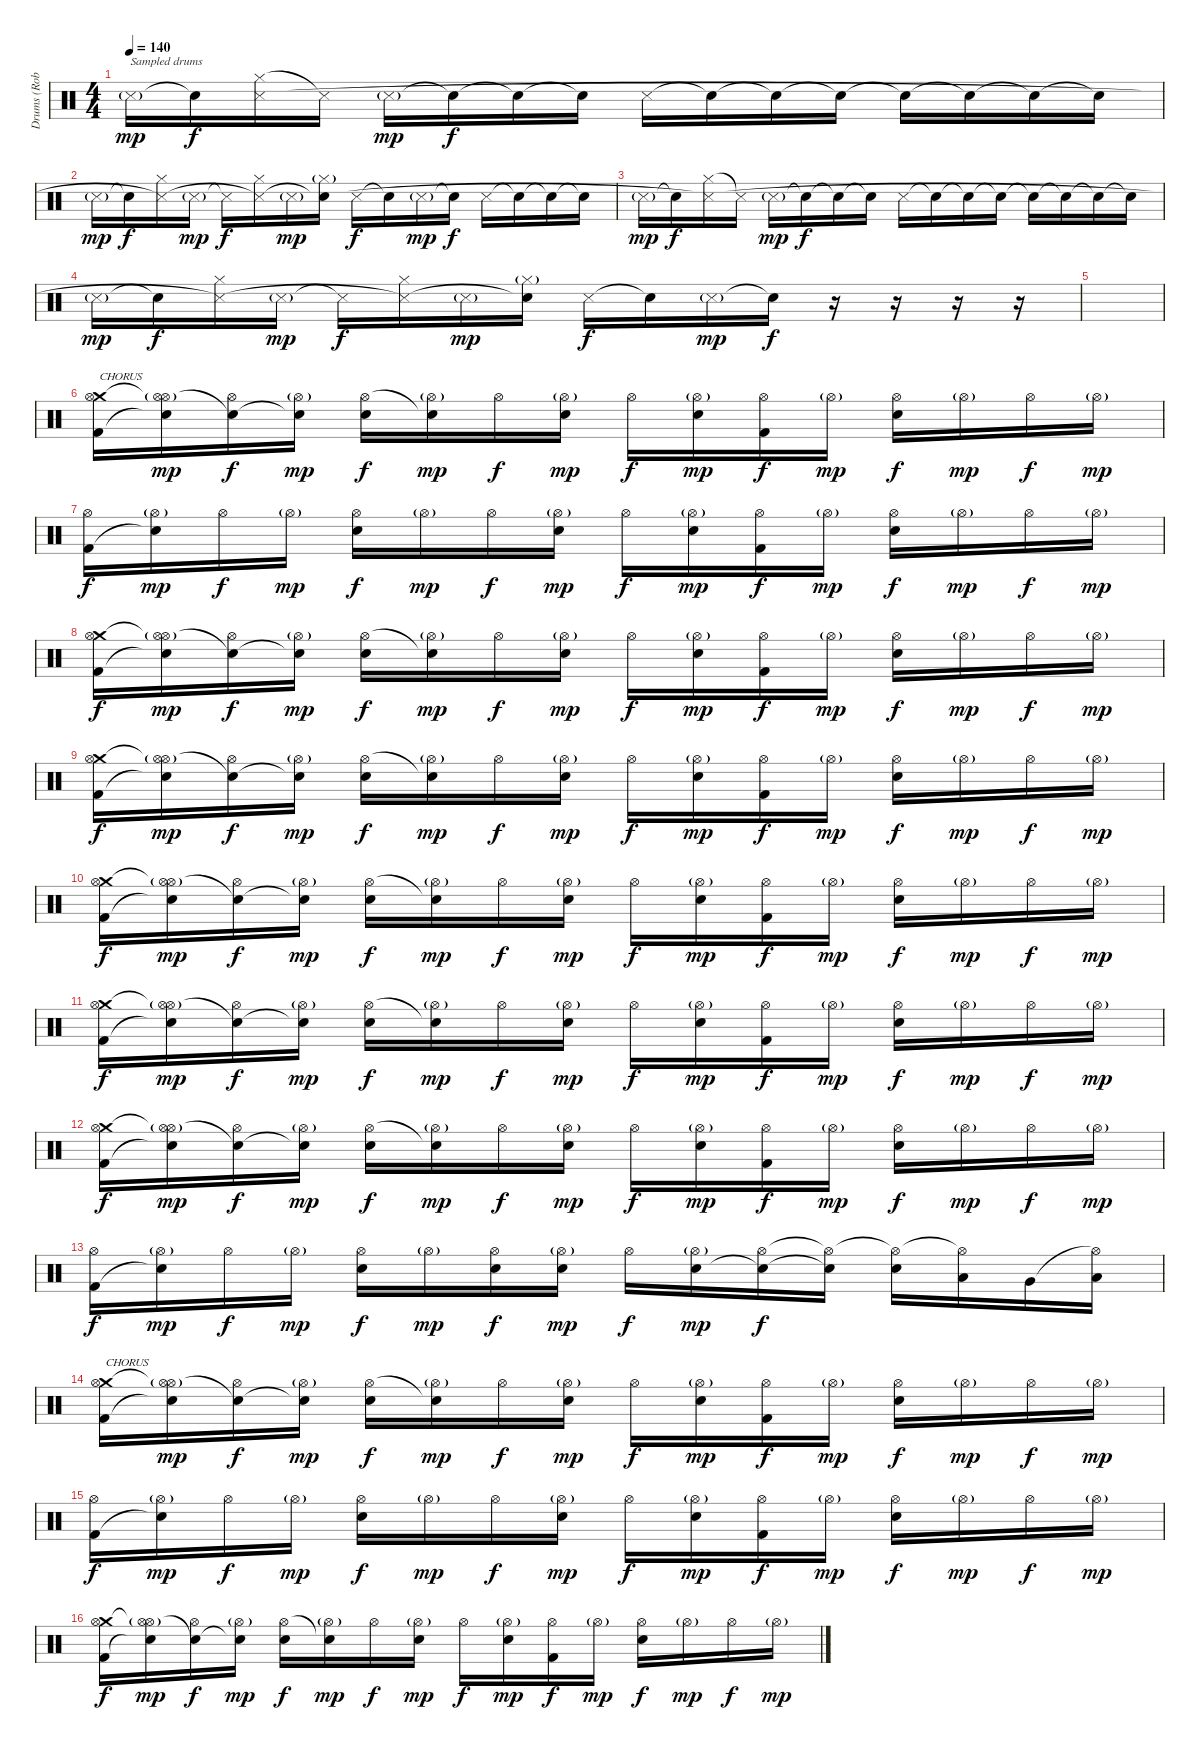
\track ("Drums (Rob Bourdon)" "Drums (Rob") {instrument percussion}
\staff {score}
\articulation defaults
\ts (4 4)
\tempo 140
\clef neutral
\ks c "Metronome (hit)"{g}.16{txt "Sampled drums" dy mp} "Snare (hit)"{t}.16{dy f}
("Hi-Hat (closed)" "Metronome (hit)"{t}).16 "Metronome (hit)"{t}.16 "Metronome (hit)"{g}.16{dy mp} "Snare (hit)"{t}.16{dy f} "Snare (hit)"{t}.16 "Snare (hit)"{t}.16 "Snare (side stick) 3".16 "Snare (hit)"{t}.16 "Snare (hit)"{t}.16 "Snare (hit)"{t}.16 "Snare (hit)"{t}.16 "Snare (hit)"{t}.16 "Snare (hit)"{t}.16 "Snare (hit)"{t}.16 |
"Metronome (hit)"{g}.16{dy mp} "Snare (hit)"{t}.16{dy f} ("Hi-Hat (closed)" "Metronome (hit)"{t}).16 "Metronome (hit)"{g}.16{dy mp} "Metronome (hit)"{t}.16{dy f} ("Hi-Hat (closed)" "Metronome (hit)"{t}).16 "Metronome (hit)"{g}.16{dy mp} ("Hi-Hat (closed)"{g} "Snare (hit)"{t}).16 "Snare (side stick) 3".16{dy f} "Snare (hit)"{t}.16 "Metronome (hit)"{g}.16{dy mp} "Snare (hit)"{t}.16{dy f} "Snare (side stick) 3".16 "Snare (hit)"{t}.16 "Snare (hit)"{t}.16 "Snare (hit)"{t}.16 |
"Metronome (hit)"{g}.16{dy mp} "Snare (hit)"{t}.16{dy f} ("Hi-Hat (closed)" "Metronome (hit)"{t}).16 "Metronome (hit)"{t}.16 "Metronome (hit)"{g}.16{dy mp} "Snare (hit)"{t}.16{dy f} "Snare (hit)"{t}.16 "Snare (hit)"{t}.16 "Snare (side stick) 3".16 "Snare (hit)"{t}.16 "Snare (hit)"{t}.16 "Snare (hit)"{t}.16 "Snare (hit)"{t}.16 "Snare (hit)"{t}.16 "Snare (hit)"{t}.16 "Snare (hit)"{t}.16 |
"Metronome (hit)"{g}.16{dy mp} "Snare (hit)"{t}.16{dy f} ("Hi-Hat (closed)" "Metronome (hit)"{t}).16 "Metronome (hit)"{g}.16{dy mp} "Metronome (hit)"{t}.16{dy f} ("Hi-Hat (closed)" "Metronome (hit)"{t}).16 "Metronome (hit)"{g}.16{dy mp} ("Hi-Hat (closed)"{g} "Snare (hit)"{t}).16 "Snare (side stick) 3".16{dy f} "Snare (hit)"{t}.16 "Metronome (hit)"{g}.16{dy mp} "Snare (hit)"{t}.16{dy f} r.16 r.16 r.16 r.16 |
|
("Crash medium (hit)" "Hi-Hat (open)" "Kick (hit) 2").16{txt "CHORUS" volume 14} ("Hi-Hat (open)"{t} "Hi-Hat (open)"{g} "Snare (hit)"{t}).16{dy mp} ("Snare (hit)"{t} "Hi-Hat (open)").16{dy f} ("Snare (hit)"{t} "Hi-Hat (open)"{g}).16{dy mp} ("Hi-Hat (open)" "Electric Snare (hit)").16{dy f} ("Snare (hit)"{t} "Hi-Hat (open)"{g}).16{dy mp} "Hi-Hat (open)".16{dy f} ("Hi-Hat (open)"{g} "Electric Snare (hit)").16{dy mp} "Hi-Hat (open)".16{dy f} ("Hi-Hat (open)"{g} "Electric Snare (hit)").16{dy mp} ("Hi-Hat (open)" "Kick (hit) 2").16{dy f} "Hi-Hat (open)"{g}.16{dy mp} ("Hi-Hat (open)" "Electric Snare (hit)").16{dy f} "Hi-Hat (open)"{g}.16{dy mp} "Hi-Hat (open)".16{dy f} "Hi-Hat (open)"{g}.16{dy mp} |
("Hi-Hat (open)" "Kick (hit) 2").16{dy f volume 14} ("Hi-Hat (open)"{g} "Snare (hit)"{t}).16{dy mp} "Hi-Hat (open)".16{dy f} "Hi-Hat (open)"{g}.16{dy mp} ("Hi-Hat (open)" "Electric Snare (hit)").16{dy f} "Hi-Hat (open)"{g}.16{dy mp} "Hi-Hat (open)".16{dy f} ("Hi-Hat (open)"{g} "Electric Snare (hit)").16{dy mp} "Hi-Hat (open)".16{dy f} ("Hi-Hat (open)"{g} "Electric Snare (hit)").16{dy mp} ("Hi-Hat (open)" "Kick (hit) 2").16{dy f} "Hi-Hat (open)"{g}.16{dy mp} ("Hi-Hat (open)" "Electric Snare (hit)").16{dy f} "Hi-Hat (open)"{g}.16{dy mp} "Hi-Hat (open)".16{dy f} "Hi-Hat (open)"{g}.16{dy mp} |
("Crash medium (hit)" "Hi-Hat (open)" "Kick (hit) 2").16{dy f volume 14} ("Hi-Hat (open)"{t} "Hi-Hat (open)"{g} "Snare (hit)"{t}).16{dy mp} ("Snare (hit)"{t} "Hi-Hat (open)").16{dy f} ("Snare (hit)"{t} "Hi-Hat (open)"{g}).16{dy mp} ("Hi-Hat (open)" "Electric Snare (hit)").16{dy f} ("Snare (hit)"{t} "Hi-Hat (open)"{g}).16{dy mp} "Hi-Hat (open)".16{dy f} ("Hi-Hat (open)"{g} "Electric Snare (hit)").16{dy mp} "Hi-Hat (open)".16{dy f} ("Hi-Hat (open)"{g} "Electric Snare (hit)").16{dy mp} ("Hi-Hat (open)" "Kick (hit) 2").16{dy f} "Hi-Hat (open)"{g}.16{dy mp} ("Hi-Hat (open)" "Electric Snare (hit)").16{dy f} "Hi-Hat (open)"{g}.16{dy mp} "Hi-Hat (open)".16{dy f} "Hi-Hat (open)"{g}.16{dy mp} |
("Crash medium (hit)" "Hi-Hat (open)" "Kick (hit) 2").16{dy f volume 14} ("Hi-Hat (open)"{t} "Hi-Hat (open)"{g} "Snare (hit)"{t}).16{dy mp} ("Snare (hit)"{t} "Hi-Hat (open)").16{dy f} ("Snare (hit)"{t} "Hi-Hat (open)"{g}).16{dy mp} ("Hi-Hat (open)" "Electric Snare (hit)").16{dy f} ("Snare (hit)"{t} "Hi-Hat (open)"{g}).16{dy mp} "Hi-Hat (open)".16{dy f} ("Hi-Hat (open)"{g} "Electric Snare (hit)").16{dy mp} "Hi-Hat (open)".16{dy f} ("Hi-Hat (open)"{g} "Electric Snare (hit)").16{dy mp} ("Hi-Hat (open)" "Kick (hit) 2").16{dy f} "Hi-Hat (open)"{g}.16{dy mp} ("Hi-Hat (open)" "Electric Snare (hit)").16{dy f} "Hi-Hat (open)"{g}.16{dy mp} "Hi-Hat (open)".16{dy f} "Hi-Hat (open)"{g}.16{dy mp} |
("Crash medium (hit)" "Hi-Hat (open)" "Kick (hit) 2").16{dy f volume 14} ("Hi-Hat (open)"{t} "Hi-Hat (open)"{g} "Snare (hit)"{t}).16{dy mp} ("Snare (hit)"{t} "Hi-Hat (open)").16{dy f} ("Snare (hit)"{t} "Hi-Hat (open)"{g}).16{dy mp} ("Hi-Hat (open)" "Electric Snare (hit)").16{dy f} ("Snare (hit)"{t} "Hi-Hat (open)"{g}).16{dy mp} "Hi-Hat (open)".16{dy f} ("Hi-Hat (open)"{g} "Electric Snare (hit)").16{dy mp} "Hi-Hat (open)".16{dy f} ("Hi-Hat (open)"{g} "Electric Snare (hit)").16{dy mp} ("Hi-Hat (open)" "Kick (hit) 2").16{dy f} "Hi-Hat (open)"{g}.16{dy mp} ("Hi-Hat (open)" "Electric Snare (hit)").16{dy f} "Hi-Hat (open)"{g}.16{dy mp} "Hi-Hat (open)".16{dy f} "Hi-Hat (open)"{g}.16{dy mp} |
("Crash medium (hit)" "Hi-Hat (open)" "Kick (hit) 2").16{dy f volume 14} ("Hi-Hat (open)"{t} "Hi-Hat (open)"{g} "Snare (hit)"{t}).16{dy mp} ("Snare (hit)"{t} "Hi-Hat (open)").16{dy f} ("Snare (hit)"{t} "Hi-Hat (open)"{g}).16{dy mp} ("Hi-Hat (open)" "Electric Snare (hit)").16{dy f} ("Snare (hit)"{t} "Hi-Hat (open)"{g}).16{dy mp} "Hi-Hat (open)".16{dy f} ("Hi-Hat (open)"{g} "Electric Snare (hit)").16{dy mp} "Hi-Hat (open)".16{dy f} ("Hi-Hat (open)"{g} "Electric Snare (hit)").16{dy mp} ("Hi-Hat (open)" "Kick (hit) 2").16{dy f} "Hi-Hat (open)"{g}.16{dy mp} ("Hi-Hat (open)" "Electric Snare (hit)").16{dy f} "Hi-Hat (open)"{g}.16{dy mp} "Hi-Hat (open)".16{dy f} "Hi-Hat (open)"{g}.16{dy mp} |
("Crash medium (hit)" "Hi-Hat (open)" "Kick (hit) 2").16{dy f volume 14} ("Hi-Hat (open)"{t} "Hi-Hat (open)"{g} "Snare (hit)"{t}).16{dy mp} ("Snare (hit)"{t} "Hi-Hat (open)").16{dy f} ("Snare (hit)"{t} "Hi-Hat (open)"{g}).16{dy mp} ("Hi-Hat (open)" "Electric Snare (hit)").16{dy f} ("Snare (hit)"{t} "Hi-Hat (open)"{g}).16{dy mp} "Hi-Hat (open)".16{dy f} ("Hi-Hat (open)"{g} "Electric Snare (hit)").16{dy mp} "Hi-Hat (open)".16{dy f} ("Hi-Hat (open)"{g} "Electric Snare (hit)").16{dy mp} ("Hi-Hat (open)" "Kick (hit) 2").16{dy f} "Hi-Hat (open)"{g}.16{dy mp} ("Hi-Hat (open)" "Electric Snare (hit)").16{dy f} "Hi-Hat (open)"{g}.16{dy mp} "Hi-Hat (open)".16{dy f} "Hi-Hat (open)"{g}.16{dy mp} |
("Hi-Hat (open)" "Kick (hit) 2").16{dy f volume 14} ("Hi-Hat (open)"{g} "Snare (hit)"{t}).16{dy mp} "Hi-Hat (open)".16{dy f} "Hi-Hat (open)"{g}.16{dy mp} ("Hi-Hat (open)" "Electric Snare (hit)").16{dy f} "Hi-Hat (open)"{g}.16{dy mp} ("Hi-Hat (open)" "Electric Snare (hit)").16{dy f} ("Hi-Hat (open)"{g} "Electric Snare (hit)").16{dy mp} "Hi-Hat (open)".16{dy f} ("Hi-Hat (open)"{g} "Electric Snare (hit)").16{dy mp} ("Hi-Hat (open)" "Electric Snare (hit)"{t}).16{dy f} ("Hi-Hat (open)"{t} "Snare (hit)"{t}).16 ("Hi-Hat (open)"{t} "Electric Snare (hit)").16 ("Hi-Hat (open)"{t} "Low Tom (hit)").16 "Very Low Tom (hit)".16 ("Hi-Hat (open)"{t} "Low Floor Tom (hit)").16 |
("Crash medium (hit)" "Hi-Hat (open)" "Kick (hit) 2").16{txt "CHORUS" volume 14} ("Hi-Hat (open)"{t} "Hi-Hat (open)"{g} "Snare (hit)"{t}).16{dy mp} ("Snare (hit)"{t} "Hi-Hat (open)").16{dy f} ("Snare (hit)"{t} "Hi-Hat (open)"{g}).16{dy mp} ("Hi-Hat (open)" "Electric Snare (hit)").16{dy f} ("Snare (hit)"{t} "Hi-Hat (open)"{g}).16{dy mp} "Hi-Hat (open)".16{dy f} ("Hi-Hat (open)"{g} "Electric Snare (hit)").16{dy mp} "Hi-Hat (open)".16{dy f} ("Hi-Hat (open)"{g} "Electric Snare (hit)").16{dy mp} ("Hi-Hat (open)" "Kick (hit) 2").16{dy f} "Hi-Hat (open)"{g}.16{dy mp} ("Hi-Hat (open)" "Electric Snare (hit)").16{dy f} "Hi-Hat (open)"{g}.16{dy mp} "Hi-Hat (open)".16{dy f} "Hi-Hat (open)"{g}.16{dy mp} |
("Hi-Hat (open)" "Kick (hit) 2").16{dy f volume 14} ("Hi-Hat (open)"{g} "Snare (hit)"{t}).16{dy mp} "Hi-Hat (open)".16{dy f} "Hi-Hat (open)"{g}.16{dy mp} ("Hi-Hat (open)" "Electric Snare (hit)").16{dy f} "Hi-Hat (open)"{g}.16{dy mp} "Hi-Hat (open)".16{dy f} ("Hi-Hat (open)"{g} "Electric Snare (hit)").16{dy mp} "Hi-Hat (open)".16{dy f} ("Hi-Hat (open)"{g} "Electric Snare (hit)").16{dy mp} ("Hi-Hat (open)" "Kick (hit) 2").16{dy f} "Hi-Hat (open)"{g}.16{dy mp} ("Hi-Hat (open)" "Electric Snare (hit)").16{dy f} "Hi-Hat (open)"{g}.16{dy mp} "Hi-Hat (open)".16{dy f} "Hi-Hat (open)"{g}.16{dy mp} |
("Crash medium (hit)" "Hi-Hat (open)" "Kick (hit) 2").16{dy f volume 14} ("Hi-Hat (open)"{t} "Hi-Hat (open)"{g} "Snare (hit)"{t}).16{dy mp} ("Snare (hit)"{t} "Hi-Hat (open)").16{dy f} ("Snare (hit)"{t} "Hi-Hat (open)"{g}).16{dy mp} ("Hi-Hat (open)" "Electric Snare (hit)").16{dy f} ("Snare (hit)"{t} "Hi-Hat (open)"{g}).16{dy mp} "Hi-Hat (open)".16{dy f} ("Hi-Hat (open)"{g} "Electric Snare (hit)").16{dy mp} "Hi-Hat (open)".16{dy f} ("Hi-Hat (open)"{g} "Electric Snare (hit)").16{dy mp} ("Hi-Hat (open)" "Kick (hit) 2").16{dy f} "Hi-Hat (open)"{g}.16{dy mp} ("Hi-Hat (open)" "Electric Snare (hit)").16{dy f} "Hi-Hat (open)"{g}.16{dy mp} "Hi-Hat (open)".16{dy f} "Hi-Hat (open)"{g}.16{dy mp}
